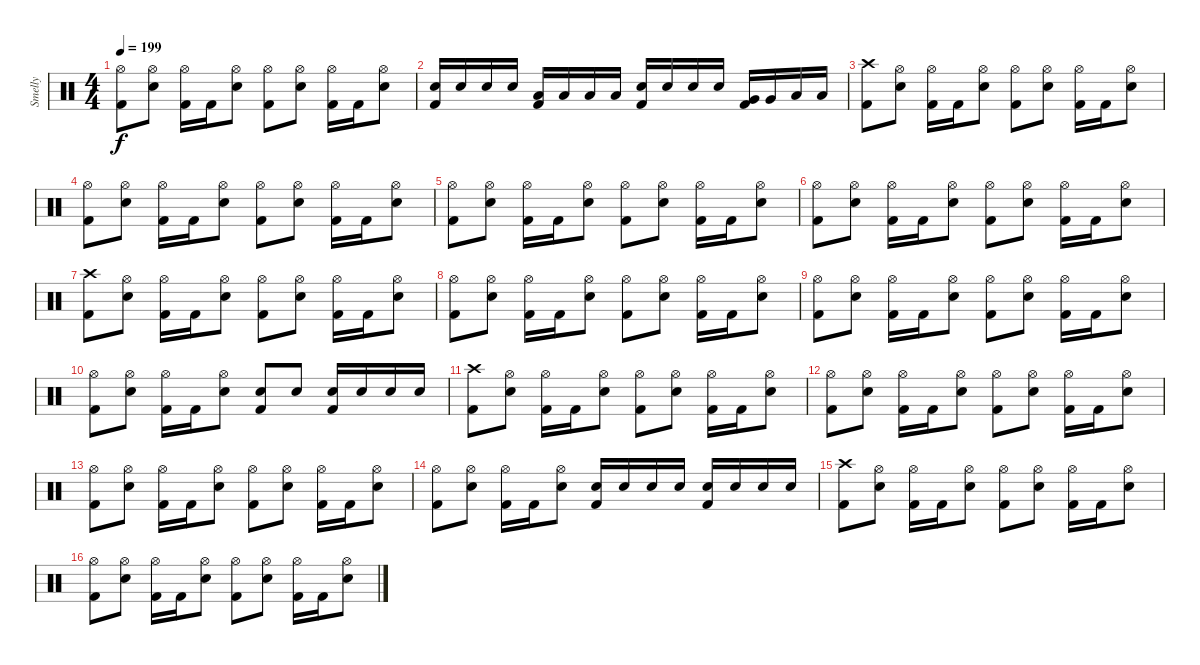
\track ("Smelly" "Smelly") {instrument percussion}
\staff {score}
\articulation defaults
\ts (4 4)
\tempo 199
\clef neutral
\ks c
("Hi-Hat (open)" "Kick (hit) 2").8{dy f} ("Hi-Hat (open)" "Electric Snare (hit)").8 ("Hi-Hat (open)" "Kick (hit) 2").16 "Kick (hit) 2".16 ("Hi-Hat (open)" "Electric Snare (hit)").8 ("Hi-Hat (open)" "Kick (hit) 2").8 ("Hi-Hat (open)" "Electric Snare (hit)").8 ("Hi-Hat (open)" "Kick (hit) 2").16 "Kick (hit) 2".16 ("Hi-Hat (open)" "Electric Snare (hit)").8 |
("Electric Snare (hit)" "Kick (hit) 2").16 "Electric Snare (hit)".16 "Electric Snare (hit)".16 "Electric Snare (hit)".16 ("Low Tom (hit)" "Kick (hit) 2").16 "Low Tom (hit)".16 "Low Tom (hit)".16 "Low Tom (hit)".16 ("Electric Snare (hit)" "Kick (hit) 2").16 "Electric Snare (hit)".16 "Electric Snare (hit)".16 "Electric Snare (hit)".16 ("Very Low Tom (hit)" "Kick (hit) 2").16 "Very Low Tom (hit)".16 "Low Floor Tom (hit)".16 "Low Floor Tom (hit)".16 |
("Crash high (hit)" "Kick (hit) 2").8 ("Hi-Hat (open)" "Electric Snare (hit)").8 ("Hi-Hat (open)" "Kick (hit) 2").16 "Kick (hit) 2".16 ("Hi-Hat (open)" "Electric Snare (hit)").8 ("Hi-Hat (open)" "Kick (hit) 2").8 ("Hi-Hat (open)" "Electric Snare (hit)").8 ("Hi-Hat (open)" "Kick (hit) 2").16 "Kick (hit) 2".16 ("Hi-Hat (open)" "Electric Snare (hit)").8 |
("Hi-Hat (open)" "Kick (hit) 2").8 ("Hi-Hat (open)" "Electric Snare (hit)").8 ("Hi-Hat (open)" "Kick (hit) 2").16 "Kick (hit) 2".16 ("Hi-Hat (open)" "Electric Snare (hit)").8 ("Hi-Hat (open)" "Kick (hit) 2").8 ("Hi-Hat (open)" "Electric Snare (hit)").8 ("Hi-Hat (open)" "Kick (hit) 2").16 "Kick (hit) 2".16 ("Hi-Hat (open)" "Electric Snare (hit)").8 |
("Hi-Hat (open)" "Kick (hit) 2").8 ("Hi-Hat (open)" "Electric Snare (hit)").8 ("Hi-Hat (open)" "Kick (hit) 2").16 "Kick (hit) 2".16 ("Hi-Hat (open)" "Electric Snare (hit)").8 ("Hi-Hat (open)" "Kick (hit) 2").8 ("Hi-Hat (open)" "Electric Snare (hit)").8 ("Hi-Hat (open)" "Kick (hit) 2").16 "Kick (hit) 2".16 ("Hi-Hat (open)" "Electric Snare (hit)").8 |
("Hi-Hat (open)" "Kick (hit) 2").8 ("Hi-Hat (open)" "Electric Snare (hit)").8 ("Hi-Hat (open)" "Kick (hit) 2").16 "Kick (hit) 2".16 ("Hi-Hat (open)" "Electric Snare (hit)").8 ("Hi-Hat (open)" "Kick (hit) 2").8 ("Hi-Hat (open)" "Electric Snare (hit)").8 ("Hi-Hat (open)" "Kick (hit) 2").16 "Kick (hit) 2".16 ("Hi-Hat (open)" "Electric Snare (hit)").8 |
("Crash high (hit)" "Kick (hit) 2").8 ("Hi-Hat (open)" "Electric Snare (hit)").8 ("Hi-Hat (open)" "Kick (hit) 2").16 "Kick (hit) 2".16 ("Hi-Hat (open)" "Electric Snare (hit)").8 ("Hi-Hat (open)" "Kick (hit) 2").8 ("Hi-Hat (open)" "Electric Snare (hit)").8 ("Hi-Hat (open)" "Kick (hit) 2").16 "Kick (hit) 2".16 ("Hi-Hat (open)" "Electric Snare (hit)").8 |
("Hi-Hat (open)" "Kick (hit) 2").8 ("Hi-Hat (open)" "Electric Snare (hit)").8 ("Hi-Hat (open)" "Kick (hit) 2").16 "Kick (hit) 2".16 ("Hi-Hat (open)" "Electric Snare (hit)").8 ("Hi-Hat (open)" "Kick (hit) 2").8 ("Hi-Hat (open)" "Electric Snare (hit)").8 ("Hi-Hat (open)" "Kick (hit) 2").16 "Kick (hit) 2".16 ("Hi-Hat (open)" "Electric Snare (hit)").8 |
("Hi-Hat (open)" "Kick (hit) 2").8 ("Hi-Hat (open)" "Electric Snare (hit)").8 ("Hi-Hat (open)" "Kick (hit) 2").16 "Kick (hit) 2".16 ("Hi-Hat (open)" "Electric Snare (hit)").8 ("Hi-Hat (open)" "Kick (hit) 2").8 ("Hi-Hat (open)" "Electric Snare (hit)").8 ("Hi-Hat (open)" "Kick (hit) 2").16 "Kick (hit) 2".16 ("Hi-Hat (open)" "Electric Snare (hit)").8 |
("Hi-Hat (open)" "Kick (hit) 2").8 ("Hi-Hat (open)" "Electric Snare (hit)").8 ("Hi-Hat (open)" "Kick (hit) 2").16 "Kick (hit) 2".16 ("Hi-Hat (open)" "Electric Snare (hit)").8 ("Electric Snare (hit)" "Kick (hit) 2").8 "Electric Snare (hit)".8 ("Electric Snare (hit)" "Kick (hit) 2").16 "Electric Snare (hit)".16 "Electric Snare (hit)".16 "Electric Snare (hit)".16 |
("Crash high (hit)" "Kick (hit) 2").8 ("Hi-Hat (open)" "Electric Snare (hit)").8 ("Hi-Hat (open)" "Kick (hit) 2").16 "Kick (hit) 2".16 ("Hi-Hat (open)" "Electric Snare (hit)").8 ("Hi-Hat (open)" "Kick (hit) 2").8 ("Hi-Hat (open)" "Electric Snare (hit)").8 ("Hi-Hat (open)" "Kick (hit) 2").16 "Kick (hit) 2".16 ("Hi-Hat (open)" "Electric Snare (hit)").8 |
("Hi-Hat (open)" "Kick (hit) 2").8 ("Hi-Hat (open)" "Electric Snare (hit)").8 ("Hi-Hat (open)" "Kick (hit) 2").16 "Kick (hit) 2".16 ("Hi-Hat (open)" "Electric Snare (hit)").8 ("Hi-Hat (open)" "Kick (hit) 2").8 ("Hi-Hat (open)" "Electric Snare (hit)").8 ("Hi-Hat (open)" "Kick (hit) 2").16 "Kick (hit) 2".16 ("Hi-Hat (open)" "Electric Snare (hit)").8 |
("Hi-Hat (open)" "Kick (hit) 2").8 ("Hi-Hat (open)" "Electric Snare (hit)").8 ("Hi-Hat (open)" "Kick (hit) 2").16 "Kick (hit) 2".16 ("Hi-Hat (open)" "Electric Snare (hit)").8 ("Hi-Hat (open)" "Kick (hit) 2").8 ("Hi-Hat (open)" "Electric Snare (hit)").8 ("Hi-Hat (open)" "Kick (hit) 2").16 "Kick (hit) 2".16 ("Hi-Hat (open)" "Electric Snare (hit)").8 |
("Hi-Hat (open)" "Kick (hit) 2").8 ("Hi-Hat (open)" "Electric Snare (hit)").8 ("Hi-Hat (open)" "Kick (hit) 2").16 "Kick (hit) 2".16 ("Hi-Hat (open)" "Electric Snare (hit)").8 ("Electric Snare (hit)" "Kick (hit) 2").16 "Electric Snare (hit)".16 "Electric Snare (hit)".16 "Electric Snare (hit)".16 ("Electric Snare (hit)" "Kick (hit) 2").16 "Electric Snare (hit)".16 "Electric Snare (hit)".16 "Electric Snare (hit)".16 |
("Crash high (hit)" "Kick (hit) 2").8 ("Hi-Hat (open)" "Electric Snare (hit)").8 ("Hi-Hat (open)" "Kick (hit) 2").16 "Kick (hit) 2".16 ("Hi-Hat (open)" "Electric Snare (hit)").8 ("Hi-Hat (open)" "Kick (hit) 2").8 ("Hi-Hat (open)" "Electric Snare (hit)").8 ("Hi-Hat (open)" "Kick (hit) 2").16 "Kick (hit) 2".16 ("Hi-Hat (open)" "Electric Snare (hit)").8 |
("Hi-Hat (open)" "Kick (hit) 2").8 ("Hi-Hat (open)" "Electric Snare (hit)").8 ("Hi-Hat (open)" "Kick (hit) 2").16 "Kick (hit) 2".16 ("Hi-Hat (open)" "Electric Snare (hit)").8 ("Hi-Hat (open)" "Kick (hit) 2").8 ("Hi-Hat (open)" "Electric Snare (hit)").8 ("Hi-Hat (open)" "Kick (hit) 2").16 "Kick (hit) 2".16 ("Hi-Hat (open)" "Electric Snare (hit)").8
